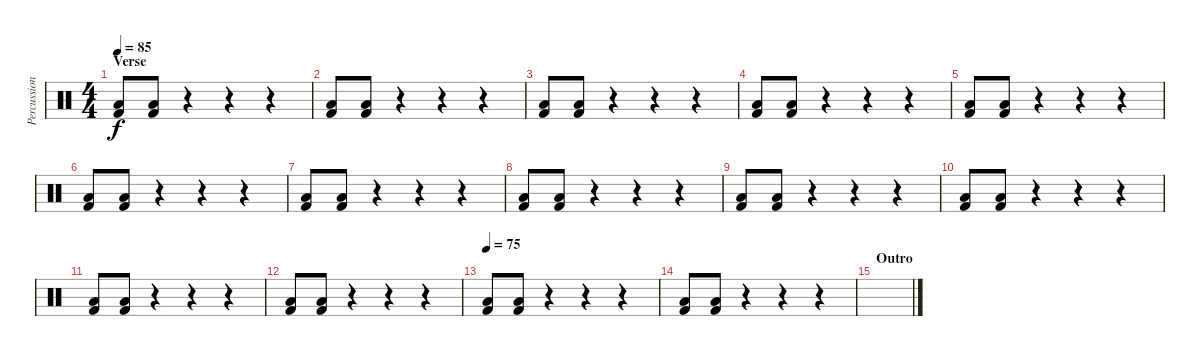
\track ("Percussion II . Jeremiah Green" "Percussion") {instrument percussion}
\staff {score}
\articulation defaults
\ts (4 4)
\section ("" "Verse")
\tempo 85
\clef neutral
\ks c
("Low Floor Tom (hit)" "Kick (hit) 2").8{dy f} ("Low Floor Tom (hit)" "Kick (hit) 2").8 r.4 r.4 r.4 |
("Low Floor Tom (hit)" "Kick (hit) 2").8 ("Low Floor Tom (hit)" "Kick (hit) 2").8 r.4 r.4 r.4 |
("Low Floor Tom (hit)" "Kick (hit) 2").8 ("Low Floor Tom (hit)" "Kick (hit) 2").8 r.4 r.4 r.4 |
("Low Floor Tom (hit)" "Kick (hit) 2").8 ("Low Floor Tom (hit)" "Kick (hit) 2").8 r.4 r.4 r.4 |
("Low Floor Tom (hit)" "Kick (hit) 2").8 ("Low Floor Tom (hit)" "Kick (hit) 2").8 r.4 r.4 r.4 |
("Low Floor Tom (hit)" "Kick (hit) 2").8 ("Low Floor Tom (hit)" "Kick (hit) 2").8 r.4 r.4 r.4 |
("Low Floor Tom (hit)" "Kick (hit) 2").8 ("Low Floor Tom (hit)" "Kick (hit) 2").8 r.4 r.4 r.4 |
("Low Floor Tom (hit)" "Kick (hit) 2").8 ("Low Floor Tom (hit)" "Kick (hit) 2").8 r.4 r.4 r.4 |
("Low Floor Tom (hit)" "Kick (hit) 2").8 ("Low Floor Tom (hit)" "Kick (hit) 2").8 r.4 r.4 r.4 |
("Low Floor Tom (hit)" "Kick (hit) 2").8 ("Low Floor Tom (hit)" "Kick (hit) 2").8 r.4 r.4 r.4 |
("Low Floor Tom (hit)" "Kick (hit) 2").8 ("Low Floor Tom (hit)" "Kick (hit) 2").8 r.4 r.4 r.4 |
("Low Floor Tom (hit)" "Kick (hit) 2").8 ("Low Floor Tom (hit)" "Kick (hit) 2").8 r.4 r.4 r.4 |
\tempo 75
("Low Floor Tom (hit)" "Kick (hit) 2").8 ("Low Floor Tom (hit)" "Kick (hit) 2").8 r.4 r.4 r.4 |
("Low Floor Tom (hit)" "Kick (hit) 2").8 ("Low Floor Tom (hit)" "Kick (hit) 2").8 r.4 r.4 r.4 |
\section ("" "Outro")
